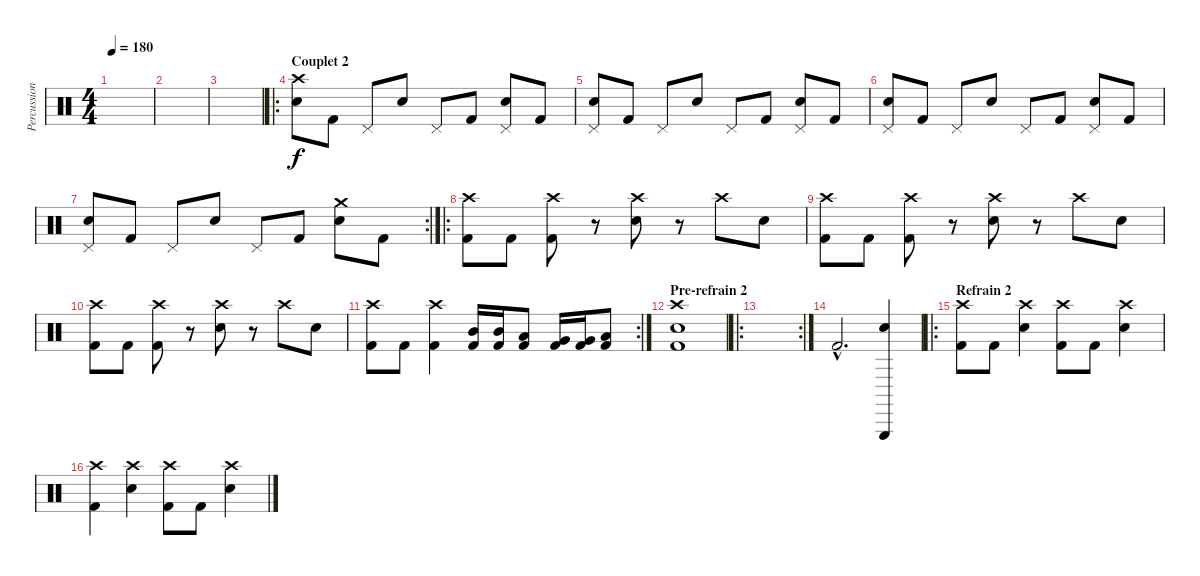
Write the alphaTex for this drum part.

\track ("Percussions" "Percussion") {instrument percussion}
\staff {score}
\articulation defaults
\ts (4 4)
\tempo 180
\clef neutral
\ks c
|
|
|
\ro
\section ("" "Couplet 2")
("Crash high (hit)" "Electric Snare (hit)").8 "Kick (hit) 2".8 "Pedal Hi-Hat (hit)".8 "Electric Snare (hit)".8 "Pedal Hi-Hat (hit)".8 "Kick (hit) 2".8 ("Pedal Hi-Hat (hit)" "Electric Snare (hit)").8 "Kick (hit) 2".8 |
("Pedal Hi-Hat (hit)" "Electric Snare (hit)").8 "Kick (hit) 2".8 "Pedal Hi-Hat (hit)".8 "Electric Snare (hit)".8 "Pedal Hi-Hat (hit)".8 "Kick (hit) 2".8 ("Pedal Hi-Hat (hit)" "Electric Snare (hit)").8 "Kick (hit) 2".8 |
("Pedal Hi-Hat (hit)" "Electric Snare (hit)").8 "Kick (hit) 2".8 "Pedal Hi-Hat (hit)".8 "Electric Snare (hit)".8 "Pedal Hi-Hat (hit)".8 "Kick (hit) 2".8 ("Pedal Hi-Hat (hit)" "Electric Snare (hit)").8 "Kick (hit) 2".8 |
\rc 2
("Pedal Hi-Hat (hit)" "Electric Snare (hit)").8 "Kick (hit) 2".8 "Pedal Hi-Hat (hit)".8 "Electric Snare (hit)".8 "Pedal Hi-Hat (hit)".8 "Kick (hit) 2".8 ("Crash medium (hit)" "Electric Snare (hit)").8 "Kick (hit) 2".8 |
\ro
("Crash high (hit)" "Kick (hit) 2").8 "Kick (hit) 2".8 ("Crash high (hit)" "Kick (hit) 2").8 r.8 ("Crash high (hit)" "Snare (hit) 2").8 r.8 "Crash high (hit)".8 "Snare (hit) 2".8 |
("Crash high (hit)" "Kick (hit) 2").8 "Kick (hit) 2".8 ("Crash high (hit)" "Kick (hit) 2").8 r.8 ("Crash high (hit)" "Snare (hit) 2").8 r.8 "Crash high (hit)".8 "Snare (hit) 2".8 |
("Crash high (hit)" "Kick (hit) 2").8 "Kick (hit) 2".8 ("Crash high (hit)" "Kick (hit) 2").8 r.8 ("Crash high (hit)" "Snare (hit) 2").8 r.8 "Crash high (hit)".8 "Snare (hit) 2".8 |
\rc 2
("Crash high (hit)" "Kick (hit) 2").8 "Kick (hit) 2".8 ("Crash high (hit)" "Kick (hit) 2").4 ("Mid Tom (hit)" "Kick (hit) 2").16 ("Mid Tom (hit)" "Kick (hit) 2").16 ("Low Tom (hit)" "Kick (hit) 2").8 ("Very Low Tom (hit)" "Kick (hit) 2").16 ("Very Low Tom (hit)" "Kick (hit) 2").16 ("Low Floor Tom (hit)" "Kick (hit) 2").8 |
\section ("" "Pre-refrain 2")
("Crash high (hit)" "Snare (hit) 2" "Kick (hit) 2").1 |
\ro
\rc 2
|
"Kick (hit) 2"{tr (36 16) hac}.2{d} ("Triangle (hit)" "Snare (hit) 2").4 |
\ro
\section ("" "Refrain 2")
("Crash high (hit)" "Kick (hit) 2").8 "Kick (hit) 2".8 ("Crash high (hit)" "Snare (hit) 2").4 ("Crash high (hit)" "Kick (hit) 2").8 "Kick (hit) 2".8 ("Crash high (hit)" "Snare (hit) 2").4 |
("Crash high (hit)" "Kick (hit) 2").4 ("Crash high (hit)" "Snare (hit) 2").4 ("Crash high (hit)" "Kick (hit) 2").8 "Kick (hit) 2".8 ("Crash high (hit)" "Snare (hit) 2").4
